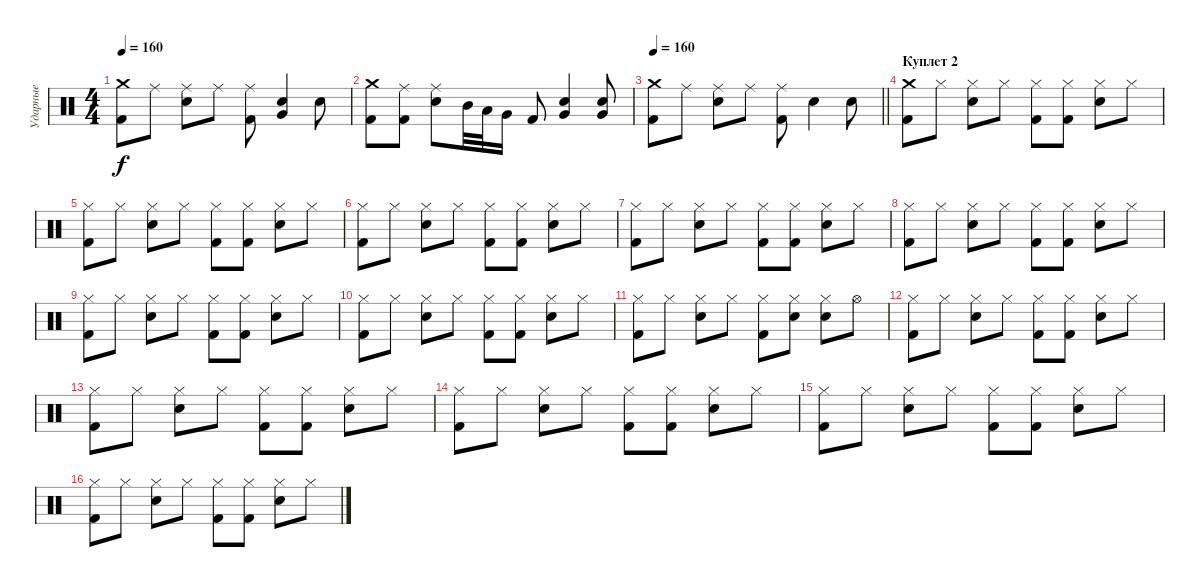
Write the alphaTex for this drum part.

\track ("Ударные" "Ударные") {instrument percussion}
\staff {score}
\articulation defaults
\ts (4 4)
\tempo 160
\clef neutral
\ks c
("Crash medium (hit)" "Kick (hit) 2").8{dy f} "Ride (middle)".8 ("Ride (middle)" "Snare (hit) 2").8 "Ride (middle)".8 ("Ride (middle)" "Kick (hit) 2").8 ("Very Low Tom (hit)" "Snare (hit) 2").4 "Snare (hit) 2".8 |
("Crash medium (hit)" "Kick (hit) 2").8 ("Ride (middle)" "Kick (hit) 2").8 ("Ride (middle)" "Snare (hit) 2").8 "Mid Tom (hit)".32 "Low Tom (hit)".32 "Very Low Tom (hit)".16 "Kick (hit) 2".8 ("Very Low Tom (hit)" "Snare (hit) 2").4 ("Very Low Tom (hit)" "Snare (hit) 2").8 |
\tempo 160
\barLineRight lightlight
("Crash medium (hit)" "Kick (hit) 2").8 "Ride (middle)".8 ("Ride (middle)" "Snare (hit) 2").8 "Ride (middle)".8 ("Ride (middle)" "Kick (hit) 2").8 "Snare (hit) 2".4 "Snare (hit) 2".8 |
\section ("" "Куплет 2")
("Crash medium (hit)" "Kick (hit) 2").8 "Hi-Hat (closed)".8 ("Hi-Hat (closed)" "Snare (hit) 2").8 "Hi-Hat (closed)".8 ("Hi-Hat (closed)" "Kick (hit) 2").8 ("Hi-Hat (closed)" "Kick (hit) 2").8 ("Hi-Hat (closed)" "Snare (hit) 2").8 "Hi-Hat (closed)".8 |
("Hi-Hat (closed)" "Kick (hit) 2").8 "Hi-Hat (closed)".8 ("Hi-Hat (closed)" "Snare (hit) 2").8 "Hi-Hat (closed)".8 ("Hi-Hat (closed)" "Kick (hit) 2").8 ("Hi-Hat (closed)" "Kick (hit) 2").8 ("Hi-Hat (closed)" "Snare (hit) 2").8 "Hi-Hat (closed)".8 |
("Hi-Hat (closed)" "Kick (hit) 2").8 "Hi-Hat (closed)".8 ("Hi-Hat (closed)" "Snare (hit) 2").8 "Hi-Hat (closed)".8 ("Hi-Hat (closed)" "Kick (hit) 2").8 ("Hi-Hat (closed)" "Kick (hit) 2").8 ("Hi-Hat (closed)" "Snare (hit) 2").8 "Hi-Hat (closed)".8 |
("Hi-Hat (closed)" "Kick (hit) 2").8 "Hi-Hat (closed)".8 ("Hi-Hat (closed)" "Snare (hit) 2").8 "Hi-Hat (closed)".8 ("Hi-Hat (closed)" "Kick (hit) 2").8 ("Hi-Hat (closed)" "Kick (hit) 2").8 ("Hi-Hat (closed)" "Snare (hit) 2").8 "Hi-Hat (closed)".8 |
("Hi-Hat (closed)" "Kick (hit) 2").8 "Hi-Hat (closed)".8 ("Hi-Hat (closed)" "Snare (hit) 2").8 "Hi-Hat (closed)".8 ("Hi-Hat (closed)" "Kick (hit) 2").8 ("Hi-Hat (closed)" "Kick (hit) 2").8 ("Hi-Hat (closed)" "Snare (hit) 2").8 "Hi-Hat (closed)".8 |
("Hi-Hat (closed)" "Kick (hit) 2").8 "Hi-Hat (closed)".8 ("Hi-Hat (closed)" "Snare (hit) 2").8 "Hi-Hat (closed)".8 ("Hi-Hat (closed)" "Kick (hit) 2").8 ("Hi-Hat (closed)" "Kick (hit) 2").8 ("Hi-Hat (closed)" "Snare (hit) 2").8 "Hi-Hat (closed)".8 |
("Hi-Hat (closed)" "Kick (hit) 2").8 "Hi-Hat (closed)".8 ("Hi-Hat (closed)" "Snare (hit) 2").8 "Hi-Hat (closed)".8 ("Hi-Hat (closed)" "Kick (hit) 2").8 ("Hi-Hat (closed)" "Kick (hit) 2").8 ("Hi-Hat (closed)" "Snare (hit) 2").8 "Hi-Hat (closed)".8 |
("Hi-Hat (closed)" "Kick (hit) 2").8 "Hi-Hat (closed)".8 ("Hi-Hat (closed)" "Snare (hit) 2").8 "Hi-Hat (closed)".8 ("Hi-Hat (closed)" "Kick (hit) 2").8 ("Hi-Hat (closed)" "Snare (hit) 2").8 ("Hi-Hat (closed)" "Snare (hit) 2").8 "Hi-Hat (open)".8 |
("Hi-Hat (closed)" "Kick (hit) 2").8 "Hi-Hat (closed)".8 ("Hi-Hat (closed)" "Snare (hit) 2").8 "Hi-Hat (closed)".8 ("Hi-Hat (closed)" "Kick (hit) 2").8 ("Hi-Hat (closed)" "Kick (hit) 2").8 ("Hi-Hat (closed)" "Snare (hit) 2").8 "Hi-Hat (closed)".8 |
("Hi-Hat (closed)" "Kick (hit) 2").8 "Hi-Hat (closed)".8 ("Hi-Hat (closed)" "Snare (hit) 2").8 "Hi-Hat (closed)".8 ("Hi-Hat (closed)" "Kick (hit) 2").8 ("Hi-Hat (closed)" "Kick (hit) 2").8 ("Hi-Hat (closed)" "Snare (hit) 2").8 "Hi-Hat (closed)".8 |
("Hi-Hat (closed)" "Kick (hit) 2").8 "Hi-Hat (closed)".8 ("Hi-Hat (closed)" "Snare (hit) 2").8 "Hi-Hat (closed)".8 ("Hi-Hat (closed)" "Kick (hit) 2").8 ("Hi-Hat (closed)" "Kick (hit) 2").8 ("Hi-Hat (closed)" "Snare (hit) 2").8 "Hi-Hat (closed)".8 |
("Hi-Hat (closed)" "Kick (hit) 2").8 "Hi-Hat (closed)".8 ("Hi-Hat (closed)" "Snare (hit) 2").8 "Hi-Hat (closed)".8 ("Hi-Hat (closed)" "Kick (hit) 2").8 ("Hi-Hat (closed)" "Kick (hit) 2").8 ("Hi-Hat (closed)" "Snare (hit) 2").8 "Hi-Hat (closed)".8 |
("Hi-Hat (closed)" "Kick (hit) 2").8 "Hi-Hat (closed)".8 ("Hi-Hat (closed)" "Snare (hit) 2").8 "Hi-Hat (closed)".8 ("Hi-Hat (closed)" "Kick (hit) 2").8 ("Hi-Hat (closed)" "Kick (hit) 2").8 ("Hi-Hat (closed)" "Snare (hit) 2").8 "Hi-Hat (closed)".8
